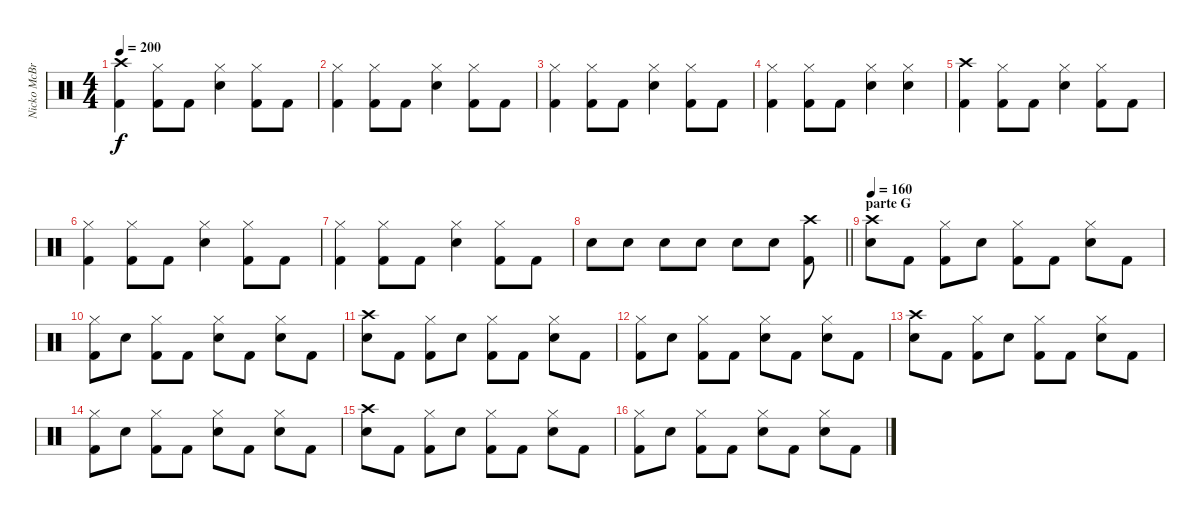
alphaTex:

\track ("Nicko McBrain" "Nicko McBr") {instrument percussion}
\staff {score}
\articulation defaults
\ts (4 4)
\tempo 200
\clef neutral
\ks c
("Crash high (hit)" "Kick (hit) 2").4{dy f} ("Hi-Hat (closed)" "Kick (hit) 2").8 "Kick (hit) 2".8 ("Hi-Hat (closed)" "Snare (hit) 2").4 ("Hi-Hat (closed)" "Kick (hit) 2").8 "Kick (hit) 2".8 |
("Hi-Hat (closed)" "Kick (hit) 2").4 ("Hi-Hat (closed)" "Kick (hit) 2").8 "Kick (hit) 2".8 ("Hi-Hat (closed)" "Snare (hit) 2").4 ("Hi-Hat (closed)" "Kick (hit) 2").8 "Kick (hit) 2".8 |
("Hi-Hat (closed)" "Kick (hit) 2").4 ("Hi-Hat (closed)" "Kick (hit) 2").8 "Kick (hit) 2".8 ("Hi-Hat (closed)" "Snare (hit) 2").4 ("Hi-Hat (closed)" "Kick (hit) 2").8 "Kick (hit) 2".8 |
("Hi-Hat (closed)" "Kick (hit) 2").4 ("Hi-Hat (closed)" "Kick (hit) 2").8 "Kick (hit) 2".8 ("Hi-Hat (closed)" "Snare (hit) 2").4 ("Hi-Hat (closed)" "Snare (hit) 2").4 |
("Crash high (hit)" "Kick (hit) 2").4 ("Hi-Hat (closed)" "Kick (hit) 2").8 "Kick (hit) 2".8 ("Hi-Hat (closed)" "Snare (hit) 2").4 ("Hi-Hat (closed)" "Kick (hit) 2").8 "Kick (hit) 2".8 |
("Hi-Hat (closed)" "Kick (hit) 2").4 ("Hi-Hat (closed)" "Kick (hit) 2").8 "Kick (hit) 2".8 ("Hi-Hat (closed)" "Snare (hit) 2").4 ("Hi-Hat (closed)" "Kick (hit) 2").8 "Kick (hit) 2".8 |
("Hi-Hat (closed)" "Kick (hit) 2").4 ("Hi-Hat (closed)" "Kick (hit) 2").8 "Kick (hit) 2".8 ("Hi-Hat (closed)" "Snare (hit) 2").4 ("Hi-Hat (closed)" "Kick (hit) 2").8 "Kick (hit) 2".8 |
\barLineRight lightlight "Snare (hit) 2".8 "Snare (hit) 2".8 "Snare (hit) 2".8 "Snare (hit) 2".8 "Snare (hit) 2".8 "Snare (hit) 2".8
("Crash high (hit)" "Kick (hit) 2").8 |
\section ("" "parte G")
\tempo 160
("Crash high (hit)" "Snare (hit) 2").8 "Kick (hit) 2".8 ("Hi-Hat (closed)" "Kick (hit) 2").8 "Snare (hit) 2".8 ("Hi-Hat (closed)" "Kick (hit) 2").8 "Kick (hit) 2".8 ("Hi-Hat (closed)" "Snare (hit) 2").8 "Kick (hit) 2".8 |
("Hi-Hat (closed)" "Kick (hit) 2").8 "Snare (hit) 2".8 ("Hi-Hat (closed)" "Kick (hit) 2").8 "Kick (hit) 2".8 ("Hi-Hat (closed)" "Snare (hit) 2").8 "Kick (hit) 2".8 ("Hi-Hat (closed)" "Snare (hit) 2").8 "Kick (hit) 2".8 |
("Crash high (hit)" "Snare (hit) 2").8 "Kick (hit) 2".8 ("Hi-Hat (closed)" "Kick (hit) 2").8 "Snare (hit) 2".8 ("Hi-Hat (closed)" "Kick (hit) 2").8 "Kick (hit) 2".8 ("Hi-Hat (closed)" "Snare (hit) 2").8 "Kick (hit) 2".8 |
("Hi-Hat (closed)" "Kick (hit) 2").8 "Snare (hit) 2".8 ("Hi-Hat (closed)" "Kick (hit) 2").8 "Kick (hit) 2".8 ("Hi-Hat (closed)" "Snare (hit) 2").8 "Kick (hit) 2".8 ("Hi-Hat (closed)" "Snare (hit) 2").8 "Kick (hit) 2".8 |
("Crash high (hit)" "Snare (hit) 2").8 "Kick (hit) 2".8 ("Hi-Hat (closed)" "Kick (hit) 2").8 "Snare (hit) 2".8 ("Hi-Hat (closed)" "Kick (hit) 2").8 "Kick (hit) 2".8 ("Hi-Hat (closed)" "Snare (hit) 2").8 "Kick (hit) 2".8 |
("Hi-Hat (closed)" "Kick (hit) 2").8 "Snare (hit) 2".8 ("Hi-Hat (closed)" "Kick (hit) 2").8 "Kick (hit) 2".8 ("Hi-Hat (closed)" "Snare (hit) 2").8 "Kick (hit) 2".8 ("Hi-Hat (closed)" "Snare (hit) 2").8 "Kick (hit) 2".8 |
("Crash high (hit)" "Snare (hit) 2").8 "Kick (hit) 2".8 ("Hi-Hat (closed)" "Kick (hit) 2").8 "Snare (hit) 2".8 ("Hi-Hat (closed)" "Kick (hit) 2").8 "Kick (hit) 2".8 ("Hi-Hat (closed)" "Snare (hit) 2").8 "Kick (hit) 2".8 |
("Hi-Hat (closed)" "Kick (hit) 2").8 "Snare (hit) 2".8 ("Hi-Hat (closed)" "Kick (hit) 2").8 "Kick (hit) 2".8 ("Hi-Hat (closed)" "Snare (hit) 2").8 "Kick (hit) 2".8 ("Hi-Hat (closed)" "Snare (hit) 2").8 "Kick (hit) 2".8
